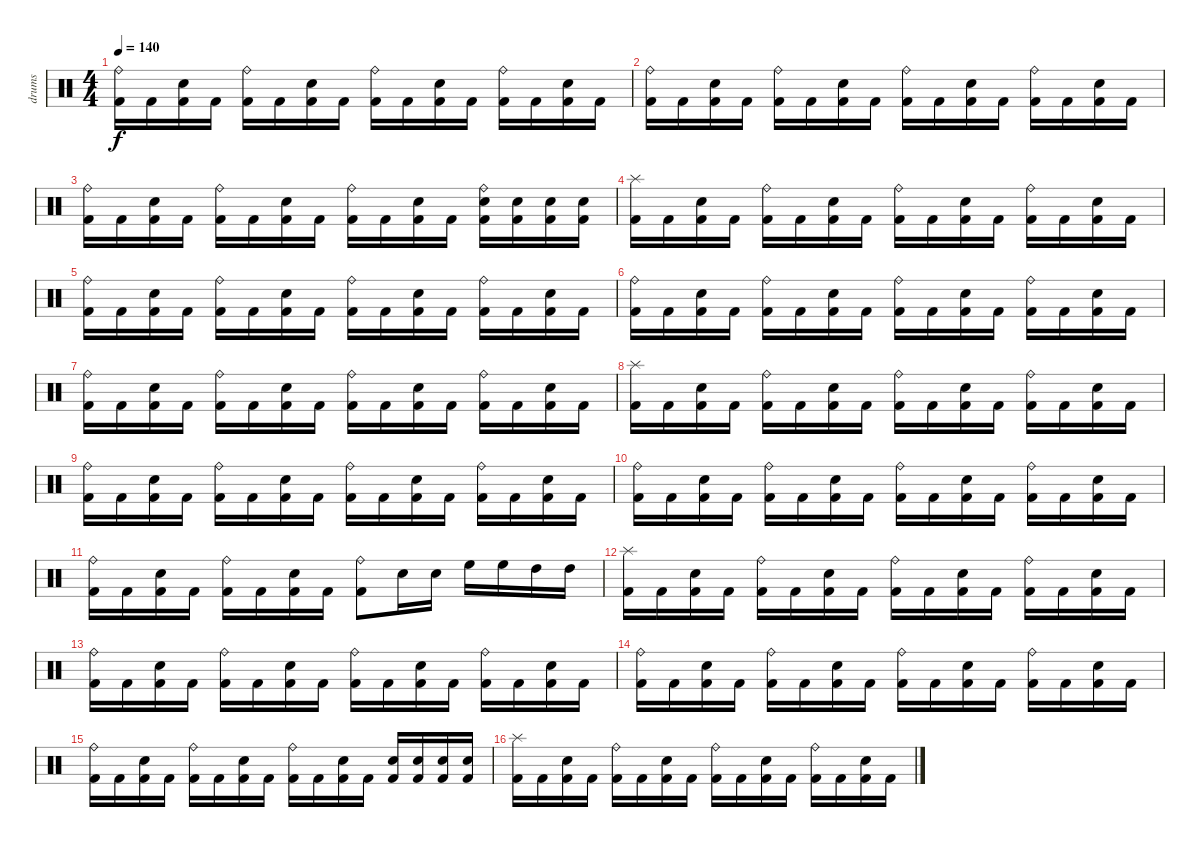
\track ("drums" "drums") {instrument percussion}
\staff {score}
\articulation defaults
\ts (4 4)
\tempo 140
\clef neutral
\ks c
("Ride (bell)" "Kick (hit) 2").16{dy f} "Kick (hit) 2".16 ("Electric Snare (hit)" "Kick (hit) 2").16 "Kick (hit) 2".16 ("Ride (bell)" "Kick (hit) 2").16 "Kick (hit) 2".16 ("Electric Snare (hit)" "Kick (hit) 2").16 "Kick (hit) 2".16 ("Ride (bell)" "Kick (hit) 2").16 "Kick (hit) 2".16 ("Electric Snare (hit)" "Kick (hit) 2").16 "Kick (hit) 2".16 ("Ride (bell)" "Kick (hit) 2").16 "Kick (hit) 2".16 ("Electric Snare (hit)" "Kick (hit) 2").16 "Kick (hit) 2".16 |
("Ride (bell)" "Kick (hit) 2").16 "Kick (hit) 2".16 ("Electric Snare (hit)" "Kick (hit) 2").16 "Kick (hit) 2".16 ("Ride (bell)" "Kick (hit) 2").16 "Kick (hit) 2".16 ("Electric Snare (hit)" "Kick (hit) 2").16 "Kick (hit) 2".16 ("Ride (bell)" "Kick (hit) 2").16 "Kick (hit) 2".16 ("Electric Snare (hit)" "Kick (hit) 2").16 "Kick (hit) 2".16 ("Ride (bell)" "Kick (hit) 2").16 "Kick (hit) 2".16 ("Electric Snare (hit)" "Kick (hit) 2").16 "Kick (hit) 2".16 |
("Ride (bell)" "Kick (hit) 2").16 "Kick (hit) 2".16 ("Electric Snare (hit)" "Kick (hit) 2").16 "Kick (hit) 2".16 ("Ride (bell)" "Kick (hit) 2").16 "Kick (hit) 2".16 ("Electric Snare (hit)" "Kick (hit) 2").16 "Kick (hit) 2".16 ("Ride (bell)" "Kick (hit) 2").16 "Kick (hit) 2".16 ("Electric Snare (hit)" "Kick (hit) 2").16 "Kick (hit) 2".16 ("Ride (bell)" "Electric Snare (hit)" "Kick (hit) 2").16 ("Electric Snare (hit)" "Kick (hit) 2").16 ("Electric Snare (hit)" "Kick (hit) 2").16 ("Electric Snare (hit)" "Kick (hit) 2").16 |
("Splash (hit)" "Kick (hit) 2").16 "Kick (hit) 2".16 ("Electric Snare (hit)" "Kick (hit) 2").16 "Kick (hit) 2".16 ("Ride (bell)" "Kick (hit) 2").16 "Kick (hit) 2".16 ("Electric Snare (hit)" "Kick (hit) 2").16 "Kick (hit) 2".16 ("Ride (bell)" "Kick (hit) 2").16 "Kick (hit) 2".16 ("Electric Snare (hit)" "Kick (hit) 2").16 "Kick (hit) 2".16 ("Ride (bell)" "Kick (hit) 2").16 "Kick (hit) 2".16 ("Electric Snare (hit)" "Kick (hit) 2").16 "Kick (hit) 2".16 |
("Ride (bell)" "Kick (hit) 2").16 "Kick (hit) 2".16 ("Electric Snare (hit)" "Kick (hit) 2").16 "Kick (hit) 2".16 ("Ride (bell)" "Kick (hit) 2").16 "Kick (hit) 2".16 ("Electric Snare (hit)" "Kick (hit) 2").16 "Kick (hit) 2".16 ("Ride (bell)" "Kick (hit) 2").16 "Kick (hit) 2".16 ("Electric Snare (hit)" "Kick (hit) 2").16 "Kick (hit) 2".16 ("Ride (bell)" "Kick (hit) 2").16 "Kick (hit) 2".16 ("Electric Snare (hit)" "Kick (hit) 2").16 "Kick (hit) 2".16 |
("Ride (bell)" "Kick (hit) 2").16 "Kick (hit) 2".16 ("Electric Snare (hit)" "Kick (hit) 2").16 "Kick (hit) 2".16 ("Ride (bell)" "Kick (hit) 2").16 "Kick (hit) 2".16 ("Electric Snare (hit)" "Kick (hit) 2").16 "Kick (hit) 2".16 ("Ride (bell)" "Kick (hit) 2").16 "Kick (hit) 2".16 ("Electric Snare (hit)" "Kick (hit) 2").16 "Kick (hit) 2".16 ("Ride (bell)" "Kick (hit) 2").16 "Kick (hit) 2".16 ("Electric Snare (hit)" "Kick (hit) 2").16 "Kick (hit) 2".16 |
("Ride (bell)" "Kick (hit) 2").16 "Kick (hit) 2".16 ("Electric Snare (hit)" "Kick (hit) 2").16 "Kick (hit) 2".16 ("Ride (bell)" "Kick (hit) 2").16 "Kick (hit) 2".16 ("Electric Snare (hit)" "Kick (hit) 2").16 "Kick (hit) 2".16 ("Ride (bell)" "Kick (hit) 2").16 "Kick (hit) 2".16 ("Electric Snare (hit)" "Kick (hit) 2").16 "Kick (hit) 2".16 ("Ride (bell)" "Kick (hit) 2").16 "Kick (hit) 2".16 ("Electric Snare (hit)" "Kick (hit) 2").16 "Kick (hit) 2".16 |
("Splash (hit)" "Kick (hit) 2").16 "Kick (hit) 2".16 ("Electric Snare (hit)" "Kick (hit) 2").16 "Kick (hit) 2".16 ("Ride (bell)" "Kick (hit) 2").16 "Kick (hit) 2".16 ("Electric Snare (hit)" "Kick (hit) 2").16 "Kick (hit) 2".16 ("Ride (bell)" "Kick (hit) 2").16 "Kick (hit) 2".16 ("Electric Snare (hit)" "Kick (hit) 2").16 "Kick (hit) 2".16 ("Ride (bell)" "Kick (hit) 2").16 "Kick (hit) 2".16 ("Electric Snare (hit)" "Kick (hit) 2").16 "Kick (hit) 2".16 |
("Ride (bell)" "Kick (hit) 2").16 "Kick (hit) 2".16 ("Electric Snare (hit)" "Kick (hit) 2").16 "Kick (hit) 2".16 ("Ride (bell)" "Kick (hit) 2").16 "Kick (hit) 2".16 ("Electric Snare (hit)" "Kick (hit) 2").16 "Kick (hit) 2".16 ("Ride (bell)" "Kick (hit) 2").16 "Kick (hit) 2".16 ("Electric Snare (hit)" "Kick (hit) 2").16 "Kick (hit) 2".16 ("Ride (bell)" "Kick (hit) 2").16 "Kick (hit) 2".16 ("Electric Snare (hit)" "Kick (hit) 2").16 "Kick (hit) 2".16 |
("Ride (bell)" "Kick (hit) 2").16 "Kick (hit) 2".16 ("Electric Snare (hit)" "Kick (hit) 2").16 "Kick (hit) 2".16 ("Ride (bell)" "Kick (hit) 2").16 "Kick (hit) 2".16 ("Electric Snare (hit)" "Kick (hit) 2").16 "Kick (hit) 2".16 ("Ride (bell)" "Kick (hit) 2").16 "Kick (hit) 2".16 ("Electric Snare (hit)" "Kick (hit) 2").16 "Kick (hit) 2".16 ("Ride (bell)" "Kick (hit) 2").16 "Kick (hit) 2".16 ("Electric Snare (hit)" "Kick (hit) 2").16 "Kick (hit) 2".16 |
("Ride (bell)" "Kick (hit) 2").16 "Kick (hit) 2".16 ("Electric Snare (hit)" "Kick (hit) 2").16 "Kick (hit) 2".16 ("Ride (bell)" "Kick (hit) 2").16 "Kick (hit) 2".16 ("Electric Snare (hit)" "Kick (hit) 2").16 "Kick (hit) 2".16 ("Ride (bell)" "Kick (hit) 2").8 "Electric Snare (hit)".16 "Electric Snare (hit)".16 "High Floor Tom (hit)".16 "High Floor Tom (hit)".16 "High Tom (hit)".16 "High Tom (hit)".16 |
("Splash (hit)" "Kick (hit) 2").16 "Kick (hit) 2".16 ("Electric Snare (hit)" "Kick (hit) 2").16 "Kick (hit) 2".16 ("Ride (bell)" "Kick (hit) 2").16 "Kick (hit) 2".16 ("Electric Snare (hit)" "Kick (hit) 2").16 "Kick (hit) 2".16 ("Ride (bell)" "Kick (hit) 2").16 "Kick (hit) 2".16 ("Electric Snare (hit)" "Kick (hit) 2").16 "Kick (hit) 2".16 ("Ride (bell)" "Kick (hit) 2").16 "Kick (hit) 2".16 ("Electric Snare (hit)" "Kick (hit) 2").16 "Kick (hit) 2".16 |
("Ride (bell)" "Kick (hit) 2").16 "Kick (hit) 2".16 ("Electric Snare (hit)" "Kick (hit) 2").16 "Kick (hit) 2".16 ("Ride (bell)" "Kick (hit) 2").16 "Kick (hit) 2".16 ("Electric Snare (hit)" "Kick (hit) 2").16 "Kick (hit) 2".16 ("Ride (bell)" "Kick (hit) 2").16 "Kick (hit) 2".16 ("Electric Snare (hit)" "Kick (hit) 2").16 "Kick (hit) 2".16 ("Ride (bell)" "Kick (hit) 2").16 "Kick (hit) 2".16 ("Electric Snare (hit)" "Kick (hit) 2").16 "Kick (hit) 2".16 |
("Ride (bell)" "Kick (hit) 2").16 "Kick (hit) 2".16 ("Electric Snare (hit)" "Kick (hit) 2").16 "Kick (hit) 2".16 ("Ride (bell)" "Kick (hit) 2").16 "Kick (hit) 2".16 ("Electric Snare (hit)" "Kick (hit) 2").16 "Kick (hit) 2".16 ("Ride (bell)" "Kick (hit) 2").16 "Kick (hit) 2".16 ("Electric Snare (hit)" "Kick (hit) 2").16 "Kick (hit) 2".16 ("Ride (bell)" "Kick (hit) 2").16 "Kick (hit) 2".16 ("Electric Snare (hit)" "Kick (hit) 2").16 "Kick (hit) 2".16 |
("Ride (bell)" "Kick (hit) 2").16 "Kick (hit) 2".16 ("Electric Snare (hit)" "Kick (hit) 2").16 "Kick (hit) 2".16 ("Ride (bell)" "Kick (hit) 2").16 "Kick (hit) 2".16 ("Electric Snare (hit)" "Kick (hit) 2").16 "Kick (hit) 2".16 ("Ride (bell)" "Kick (hit) 2").16 "Kick (hit) 2".16 ("Electric Snare (hit)" "Kick (hit) 2").16 "Kick (hit) 2".16 ("Electric Snare (hit)" "Kick (hit) 2").16 ("Electric Snare (hit)" "Kick (hit) 2").16 ("Electric Snare (hit)" "Kick (hit) 2").16 ("Electric Snare (hit)" "Kick (hit) 2").16 |
("Splash (hit)" "Kick (hit) 2").16 "Kick (hit) 2".16 ("Electric Snare (hit)" "Kick (hit) 2").16 "Kick (hit) 2".16 ("Ride (bell)" "Kick (hit) 2").16 "Kick (hit) 2".16 ("Electric Snare (hit)" "Kick (hit) 2").16 "Kick (hit) 2".16 ("Ride (bell)" "Kick (hit) 2").16 "Kick (hit) 2".16 ("Electric Snare (hit)" "Kick (hit) 2").16 "Kick (hit) 2".16 ("Ride (bell)" "Kick (hit) 2").16 "Kick (hit) 2".16 ("Electric Snare (hit)" "Kick (hit) 2").16 "Kick (hit) 2".16
